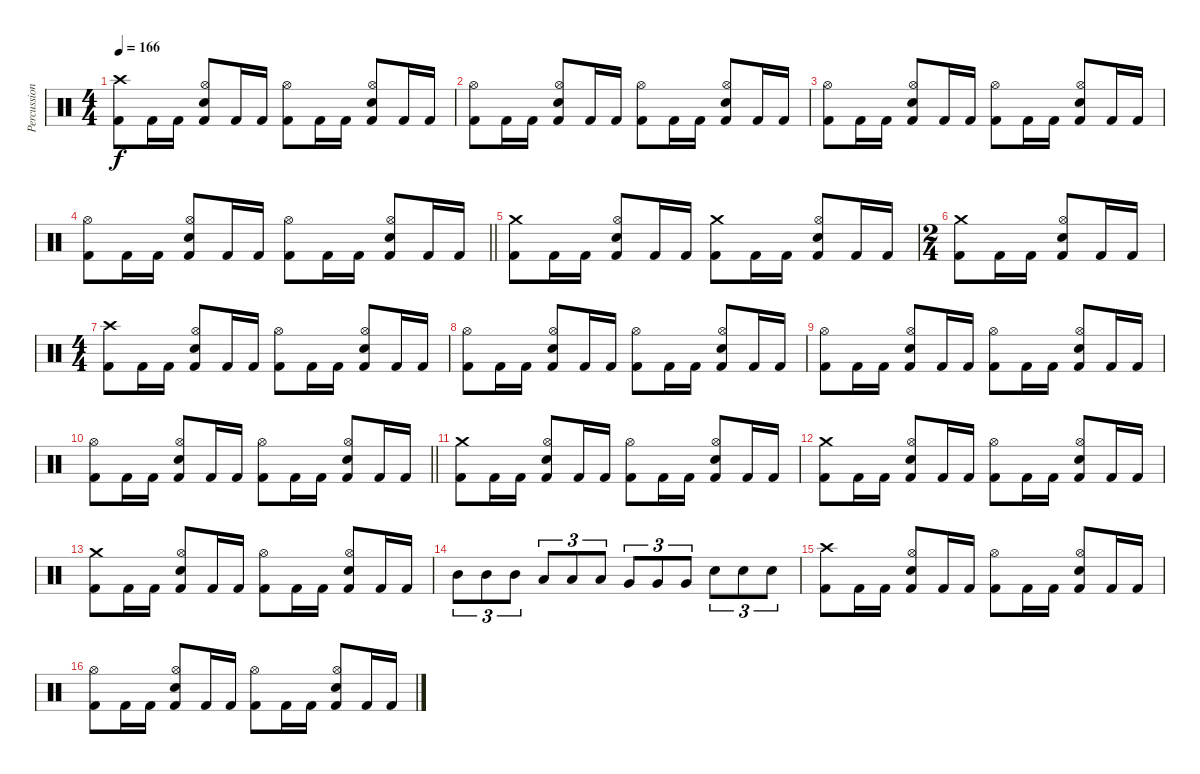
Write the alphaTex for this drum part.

\track ("Percussion" "Percussion") {instrument percussion}
\staff {score}
\articulation defaults
\ts (4 4)
\tempo 166
\clef neutral
\ks c
("Crash high (hit)" "Kick (hit) 2").8{dy f} "Kick (hit) 2".16 "Kick (hit) 2".16 ("Hi-Hat (open)" "Snare (hit) 2" "Kick (hit) 2").8 "Kick (hit) 2".16 "Kick (hit) 2".16 ("Hi-Hat (open)" "Kick (hit) 2").8 "Kick (hit) 2".16 "Kick (hit) 2".16 ("Hi-Hat (open)" "Snare (hit) 2" "Kick (hit) 2").8 "Kick (hit) 2".16 "Kick (hit) 2".16 |
("Hi-Hat (open)" "Kick (hit) 2").8 "Kick (hit) 2".16 "Kick (hit) 2".16 ("Hi-Hat (open)" "Snare (hit) 2" "Kick (hit) 2").8 "Kick (hit) 2".16 "Kick (hit) 2".16 ("Hi-Hat (open)" "Kick (hit) 2").8 "Kick (hit) 2".16 "Kick (hit) 2".16 ("Hi-Hat (open)" "Snare (hit) 2" "Kick (hit) 2").8 "Kick (hit) 2".16 "Kick (hit) 2".16 |
("Hi-Hat (open)" "Kick (hit) 2").8 "Kick (hit) 2".16 "Kick (hit) 2".16 ("Hi-Hat (open)" "Snare (hit) 2" "Kick (hit) 2").8 "Kick (hit) 2".16 "Kick (hit) 2".16 ("Hi-Hat (open)" "Kick (hit) 2").8 "Kick (hit) 2".16 "Kick (hit) 2".16 ("Hi-Hat (open)" "Snare (hit) 2" "Kick (hit) 2").8 "Kick (hit) 2".16 "Kick (hit) 2".16 |
\barLineRight lightlight
("Hi-Hat (open)" "Kick (hit) 2").8 "Kick (hit) 2".16 "Kick (hit) 2".16 ("Hi-Hat (open)" "Snare (hit) 2" "Kick (hit) 2").8 "Kick (hit) 2".16 "Kick (hit) 2".16 ("Hi-Hat (open)" "Kick (hit) 2").8 "Kick (hit) 2".16 "Kick (hit) 2".16 ("Hi-Hat (open)" "Snare (hit) 2" "Kick (hit) 2").8 "Kick (hit) 2".16 "Kick (hit) 2".16 |
("Crash medium (hit)" "Kick (hit) 2").8 "Kick (hit) 2".16 "Kick (hit) 2".16 ("Hi-Hat (open)" "Snare (hit) 2" "Kick (hit) 2").8 "Kick (hit) 2".16 "Kick (hit) 2".16 ("Crash medium (hit)" "Kick (hit) 2").8 "Kick (hit) 2".16 "Kick (hit) 2".16 ("Hi-Hat (open)" "Snare (hit) 2" "Kick (hit) 2").8 "Kick (hit) 2".16 "Kick (hit) 2".16 |
\ts (2 4)
("Crash medium (hit)" "Kick (hit) 2").8 "Kick (hit) 2".16 "Kick (hit) 2".16 ("Hi-Hat (open)" "Snare (hit) 2" "Kick (hit) 2").8 "Kick (hit) 2".16 "Kick (hit) 2".16 |
\ts (4 4)
("Crash high (hit)" "Kick (hit) 2").8 "Kick (hit) 2".16 "Kick (hit) 2".16 ("Hi-Hat (open)" "Snare (hit) 2" "Kick (hit) 2").8 "Kick (hit) 2".16 "Kick (hit) 2".16 ("Hi-Hat (open)" "Kick (hit) 2").8 "Kick (hit) 2".16 "Kick (hit) 2".16 ("Hi-Hat (open)" "Snare (hit) 2" "Kick (hit) 2").8 "Kick (hit) 2".16 "Kick (hit) 2".16 |
("Hi-Hat (open)" "Kick (hit) 2").8 "Kick (hit) 2".16 "Kick (hit) 2".16 ("Hi-Hat (open)" "Snare (hit) 2" "Kick (hit) 2").8 "Kick (hit) 2".16 "Kick (hit) 2".16 ("Hi-Hat (open)" "Kick (hit) 2").8 "Kick (hit) 2".16 "Kick (hit) 2".16 ("Hi-Hat (open)" "Snare (hit) 2" "Kick (hit) 2").8 "Kick (hit) 2".16 "Kick (hit) 2".16 |
("Hi-Hat (open)" "Kick (hit) 2").8 "Kick (hit) 2".16 "Kick (hit) 2".16 ("Hi-Hat (open)" "Snare (hit) 2" "Kick (hit) 2").8 "Kick (hit) 2".16 "Kick (hit) 2".16 ("Hi-Hat (open)" "Kick (hit) 2").8 "Kick (hit) 2".16 "Kick (hit) 2".16 ("Hi-Hat (open)" "Snare (hit) 2" "Kick (hit) 2").8 "Kick (hit) 2".16 "Kick (hit) 2".16 |
\barLineRight lightlight
("Hi-Hat (open)" "Kick (hit) 2").8 "Kick (hit) 2".16 "Kick (hit) 2".16 ("Hi-Hat (open)" "Snare (hit) 2" "Kick (hit) 2").8 "Kick (hit) 2".16 "Kick (hit) 2".16 ("Hi-Hat (open)" "Kick (hit) 2").8 "Kick (hit) 2".16 "Kick (hit) 2".16 ("Hi-Hat (open)" "Snare (hit) 2" "Kick (hit) 2").8 "Kick (hit) 2".16 "Kick (hit) 2".16 |
("Crash medium (hit)" "Kick (hit) 2").8 "Kick (hit) 2".16 "Kick (hit) 2".16 ("Hi-Hat (open)" "Snare (hit) 2" "Kick (hit) 2").8 "Kick (hit) 2".16 "Kick (hit) 2".16 ("Hi-Hat (open)" "Kick (hit) 2").8 "Kick (hit) 2".16 "Kick (hit) 2".16 ("Hi-Hat (open)" "Snare (hit) 2" "Kick (hit) 2").8 "Kick (hit) 2".16 "Kick (hit) 2".16 |
("Crash medium (hit)" "Kick (hit) 2").8 "Kick (hit) 2".16 "Kick (hit) 2".16 ("Hi-Hat (open)" "Snare (hit) 2" "Kick (hit) 2").8 "Kick (hit) 2".16 "Kick (hit) 2".16 ("Hi-Hat (open)" "Kick (hit) 2").8 "Kick (hit) 2".16 "Kick (hit) 2".16 ("Hi-Hat (open)" "Snare (hit) 2" "Kick (hit) 2").8 "Kick (hit) 2".16 "Kick (hit) 2".16 |
("Crash medium (hit)" "Kick (hit) 2").8 "Kick (hit) 2".16 "Kick (hit) 2".16 ("Hi-Hat (open)" "Snare (hit) 2" "Kick (hit) 2").8 "Kick (hit) 2".16 "Kick (hit) 2".16 ("Hi-Hat (open)" "Kick (hit) 2").8 "Kick (hit) 2".16 "Kick (hit) 2".16 ("Hi-Hat (open)" "Snare (hit) 2" "Kick (hit) 2").8 "Kick (hit) 2".16 "Kick (hit) 2".16 |
"Mid Tom (hit)".8{tu (3 2)} "Mid Tom (hit)".8{tu (3 2)} "Mid Tom (hit)".8{tu (3 2)} "Low Tom (hit)".8{tu (3 2)} "Low Tom (hit)".8{tu (3 2)} "Low Tom (hit)".8{tu (3 2)} "Very Low Tom (hit)".8{tu (3 2)} "Very Low Tom (hit)".8{tu (3 2)} "Very Low Tom (hit)".8{tu (3 2)} "Snare (hit) 2".8{tu (3 2)} "Snare (hit) 2".8{tu (3 2)} "Snare (hit) 2".8{tu (3 2)} |
("Crash high (hit)" "Kick (hit) 2").8 "Kick (hit) 2".16 "Kick (hit) 2".16 ("Hi-Hat (open)" "Snare (hit) 2" "Kick (hit) 2").8 "Kick (hit) 2".16 "Kick (hit) 2".16 ("Hi-Hat (open)" "Kick (hit) 2").8 "Kick (hit) 2".16 "Kick (hit) 2".16 ("Hi-Hat (open)" "Snare (hit) 2" "Kick (hit) 2").8 "Kick (hit) 2".16 "Kick (hit) 2".16 |
("Hi-Hat (open)" "Kick (hit) 2").8 "Kick (hit) 2".16 "Kick (hit) 2".16 ("Hi-Hat (open)" "Snare (hit) 2" "Kick (hit) 2").8 "Kick (hit) 2".16 "Kick (hit) 2".16 ("Hi-Hat (open)" "Kick (hit) 2").8 "Kick (hit) 2".16 "Kick (hit) 2".16 ("Hi-Hat (open)" "Snare (hit) 2" "Kick (hit) 2").8 "Kick (hit) 2".16 "Kick (hit) 2".16
